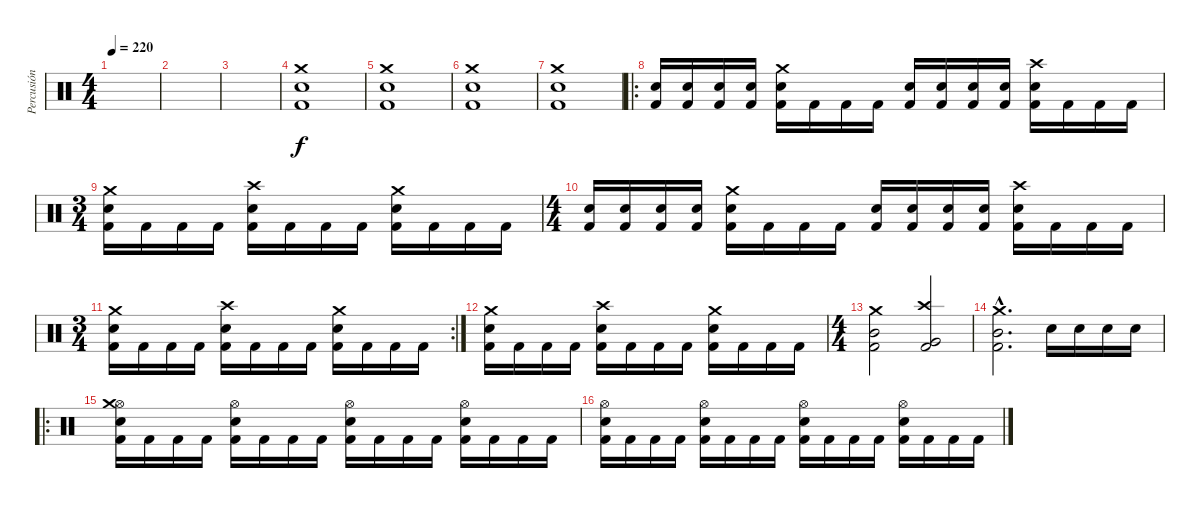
\track ("Percusión" "Percusión") {instrument percussion}
\staff {score}
\articulation defaults
\ts (4 4)
\tempo 220
\clef neutral
\ks c
|
|
|
("Crash medium (hit)" "Electric Snare (hit)" "Kick (hit) 2").1 |
("Crash medium (hit)" "Electric Snare (hit)" "Kick (hit) 2").1 |
("Crash medium (hit)" "Electric Snare (hit)" "Kick (hit) 2").1 |
("Crash medium (hit)" "Electric Snare (hit)" "Kick (hit) 2").1 |
\ro
("Snare (hit) 2" "Kick (hit) 2").16 ("Snare (hit) 2" "Kick (hit) 2").16 ("Snare (hit) 2" "Kick (hit) 2").16 ("Snare (hit) 2" "Kick (hit) 2").16 ("Crash medium (hit)" "Snare (hit) 2" "Kick (hit) 2").16 "Kick (hit) 2".16 "Kick (hit) 2".16 "Kick (hit) 2".16 ("Snare (hit) 2" "Kick (hit) 2").16 ("Snare (hit) 2" "Kick (hit) 2").16 ("Snare (hit) 2" "Kick (hit) 2").16 ("Snare (hit) 2" "Kick (hit) 2").16 ("Crash high (hit)" "Snare (hit) 2" "Kick (hit) 2").16 "Kick (hit) 2".16 "Kick (hit) 2".16 "Kick (hit) 2".16 |
\ts (3 4)
("Crash medium (hit)" "Snare (hit) 2" "Kick (hit) 2").16 "Kick (hit) 2".16 "Kick (hit) 2".16 "Kick (hit) 2".16 ("Crash high (hit)" "Snare (hit) 2" "Kick (hit) 2").16 "Kick (hit) 2".16 "Kick (hit) 2".16 "Kick (hit) 2".16 ("Crash medium (hit)" "Snare (hit) 2" "Kick (hit) 2").16 "Kick (hit) 2".16 "Kick (hit) 2".16 "Kick (hit) 2".16 |
\ts (4 4)
("Snare (hit) 2" "Kick (hit) 2").16 ("Snare (hit) 2" "Kick (hit) 2").16 ("Snare (hit) 2" "Kick (hit) 2").16 ("Snare (hit) 2" "Kick (hit) 2").16 ("Crash medium (hit)" "Snare (hit) 2" "Kick (hit) 2").16 "Kick (hit) 2".16 "Kick (hit) 2".16 "Kick (hit) 2".16 ("Snare (hit) 2" "Kick (hit) 2").16 ("Snare (hit) 2" "Kick (hit) 2").16 ("Snare (hit) 2" "Kick (hit) 2").16 ("Snare (hit) 2" "Kick (hit) 2").16 ("Crash high (hit)" "Snare (hit) 2" "Kick (hit) 2").16 "Kick (hit) 2".16 "Kick (hit) 2".16 "Kick (hit) 2".16 |
\rc 2
\ts (3 4)
("Crash medium (hit)" "Snare (hit) 2" "Kick (hit) 2").16 "Kick (hit) 2".16 "Kick (hit) 2".16 "Kick (hit) 2".16 ("Crash high (hit)" "Snare (hit) 2" "Kick (hit) 2").16 "Kick (hit) 2".16 "Kick (hit) 2".16 "Kick (hit) 2".16 ("Crash medium (hit)" "Snare (hit) 2" "Kick (hit) 2").16 "Kick (hit) 2".16 "Kick (hit) 2".16 "Kick (hit) 2".16 |
("Crash medium (hit)" "Snare (hit) 2" "Kick (hit) 2").16 "Kick (hit) 2".16 "Kick (hit) 2".16 "Kick (hit) 2".16 ("Crash high (hit)" "Snare (hit) 2" "Kick (hit) 2").16 "Kick (hit) 2".16 "Kick (hit) 2".16 "Kick (hit) 2".16 ("Crash medium (hit)" "Snare (hit) 2" "Kick (hit) 2").16 "Kick (hit) 2".16 "Kick (hit) 2".16 "Kick (hit) 2".16 |
\ts (4 4)
("Crash medium (hit)" "Mid Tom (hit)" "Kick (hit) 2").2 ("Crash high (hit)" "Very Low Tom (hit)" "Kick (hit) 2").2 |
("Crash medium (hit)"{hac} "Mid Tom (hit)"{hac} "Kick (hit) 2"{hac}).2{d} "Snare (hit) 2".16 "Snare (hit) 2".16 "Snare (hit) 2".16 "Snare (hit) 2".16 |
\ro
("Hi-Hat (open)" "Crash medium (hit)" "Snare (hit) 2" "Kick (hit) 2").16 "Kick (hit) 2".16 "Kick (hit) 2".16 "Kick (hit) 2".16 ("Hi-Hat (open)" "Snare (hit) 2" "Kick (hit) 2").16 "Kick (hit) 2".16 "Kick (hit) 2".16 "Kick (hit) 2".16 ("Hi-Hat (open)" "Snare (hit) 2" "Kick (hit) 2").16 "Kick (hit) 2".16 "Kick (hit) 2".16 "Kick (hit) 2".16 ("Hi-Hat (open)" "Snare (hit) 2" "Kick (hit) 2").16 "Kick (hit) 2".16 "Kick (hit) 2".16 "Kick (hit) 2".16 |
("Hi-Hat (open)" "Snare (hit) 2" "Kick (hit) 2").16 "Kick (hit) 2".16 "Kick (hit) 2".16 "Kick (hit) 2".16 ("Hi-Hat (open)" "Snare (hit) 2" "Kick (hit) 2").16 "Kick (hit) 2".16 "Kick (hit) 2".16 "Kick (hit) 2".16 ("Hi-Hat (open)" "Snare (hit) 2" "Kick (hit) 2").16 "Kick (hit) 2".16 "Kick (hit) 2".16 "Kick (hit) 2".16 ("Hi-Hat (open)" "Snare (hit) 2" "Kick (hit) 2").16 "Kick (hit) 2".16 "Kick (hit) 2".16 "Kick (hit) 2".16
